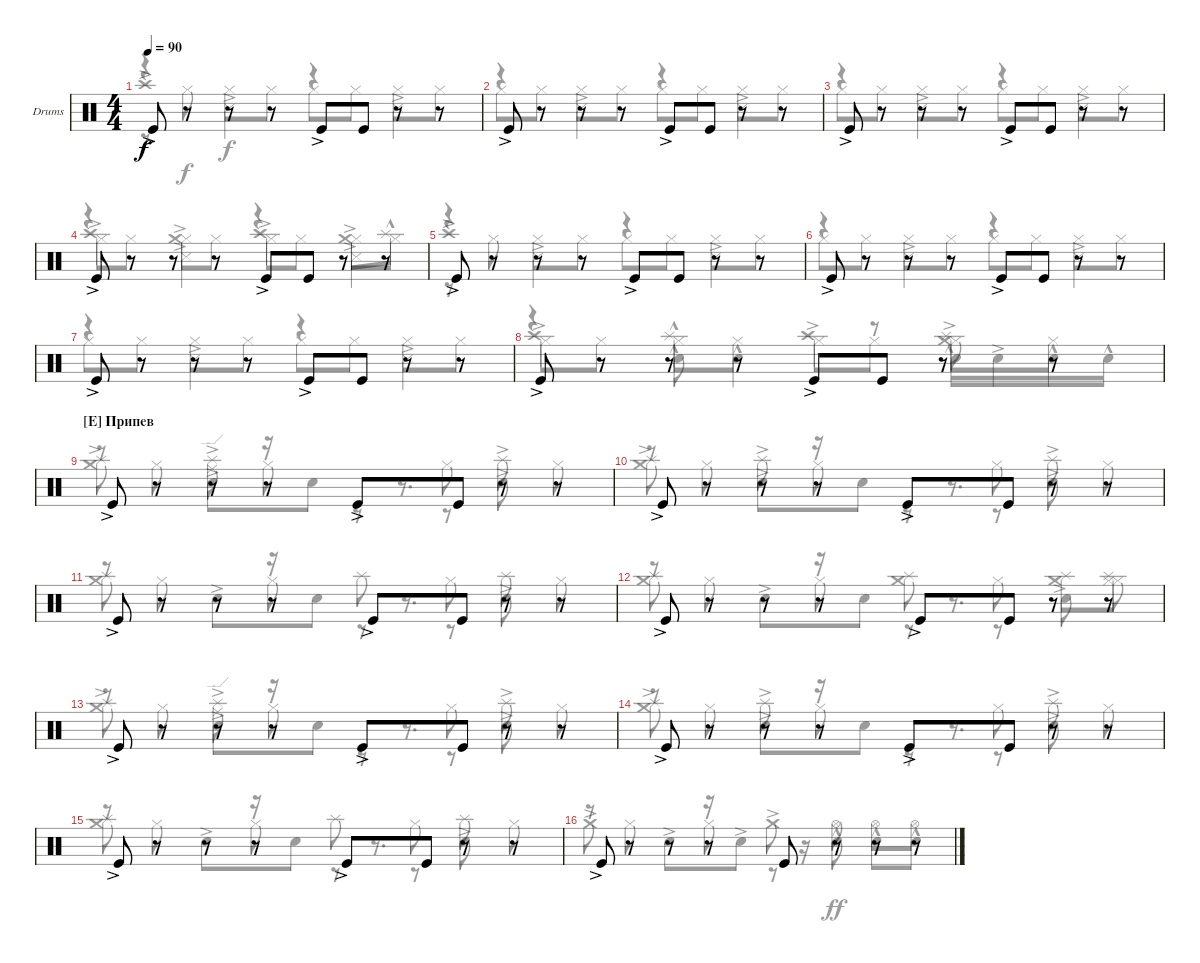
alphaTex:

\defaultSystemsLayout 4
\bracketExtendMode groupsimilarinstruments
\firstSystemTrackNameOrientation horizontal
\otherSystemsTrackNameOrientation horizontal
\track ("Drumkit" "Drums") {instrument percussion}
\staff {score}
\articulation defaults
\voice
\ts (4 4)
\tempo 90
\clef neutral
\scale
0.333333
\ks c "Kick (hit)"{ac}.8{dy f}
r.8 r.8 r.8 "Kick (hit)"{ac}.8 "Kick (hit)".8 r.8 r.8 |
\scale
0.333333 "Kick (hit)"{ac}.8 r.8 r.8 r.8 "Kick (hit)"{ac}.8 "Kick (hit)".8 r.8 r.8 |
\scale
0.333333 "Kick (hit)"{ac}.8 r.8 r.8 r.8 "Kick (hit)"{ac}.8 "Kick (hit)".8 r.8 r.8 |
\scale
0.333333 "Kick (hit)"{ac}.8 r.8 r.8 r.8 "Kick (hit)"{ac}.8 "Kick (hit)".8 r.8 r.8 |
\scale
0.333333 "Kick (hit)"{ac}.8 r.8 r.8 r.8 "Kick (hit)"{ac}.8 "Kick (hit)".8 r.8 r.8 |
\scale
0.333333 "Kick (hit)"{ac}.8 r.8 r.8 r.8 "Kick (hit)"{ac}.8 "Kick (hit)".8 r.8 r.8 |
\scale
0.333333 "Kick (hit)"{ac}.8 r.8 r.8 r.8 "Kick (hit)"{ac}.8 "Kick (hit)".8 r.8 r.8 |
\scale
0.333333 "Kick (hit)"{ac}.8 r.8 r.8 r.8 "Kick (hit)"{ac}.8 "Kick (hit)".8 r.8 r.8 |
\section ("E" "Припев")
\scale
0.333333 "Kick (hit)"{ac}.8 r.8 r.8 r.8 "Kick (hit)"{ac}.8 "Kick (hit)".8 r.8 r.8 |
\scale
0.333333 "Kick (hit)"{ac}.8 r.8 r.8 r.8 "Kick (hit)"{ac}.8 "Kick (hit)".8 r.8 r.8 |
\scale
0.333333 "Kick (hit)"{ac}.8 r.8 r.8 r.8 "Kick (hit)"{ac}.8 "Kick (hit)".8 r.8 r.8 |
\scale
0.333333 "Kick (hit)"{ac}.8 r.8 r.8 r.8 "Kick (hit)"{ac}.8 "Kick (hit)".8 r.8 r.8 |
\scale
0.333333 "Kick (hit)"{ac}.8 r.8 r.8 r.8 "Kick (hit)"{ac}.8 "Kick (hit)".8 r.8 r.8 |
\scale
0.333333 "Kick (hit)"{ac}.8 r.8 r.8 r.8 "Kick (hit)"{ac}.8 "Kick (hit)".8 r.8 r.8 |
\scale
0.333333 "Kick (hit)"{ac}.8 r.8 r.8 r.8 "Kick (hit)"{ac}.8 "Kick (hit)".8 r.8 r.8 |
\scale
0.333333 "Kick (hit)"{ac}.8 r.8 r.8 r.8 "Kick (hit)".8 r.8 r.8 r.8
\voice
\clef neutral
\ottava regular
\simile none
\scale
0.333333
\ks c
r.4{dy f} "Snare (side stick) 3"{ac}.4 r.4 "Snare (side stick) 3"{ac}.4 |
\scale
0.333333 r.4 "Snare (side stick) 3"{ac}.4 r.4 "Snare (side stick) 3"{ac}.4 |
\scale
0.333333 r.4 "Snare (side stick) 3"{ac}.4 r.4 "Snare (side stick) 3"{ac}.4 |
\scale
0.333333 r.4 "Snare (side stick) 3"{ac}.4 r.4 "Snare (side stick) 3"{ac}.4 |
\scale
0.333333 r.4 "Snare (side stick) 3"{ac}.4 r.4 "Snare (side stick) 3"{ac}.4 |
\scale
0.333333 r.4 "Snare (side stick) 3"{ac}.4 r.4 "Snare (side stick) 3"{ac}.4 |
\scale
0.333333 r.4 "Snare (side stick) 3"{ac}.4 r.4 "Snare (side stick) 3"{ac}.4 |
\scale
0.333333 r.4 "Snare (hit) 2"{hac}.8 "Snare (hit) 2"{hac}.4 r.8 "Snare (hit) 2"{hac}.16 "Snare (hit) 2"{ac}.16 "Snare (hit) 2"{hac}.16 "Snare (hit) 2"{hac}.16 |
\scale
0.333333 r.8 r.8 "Snare (hit) 2"{ac}.8 r.16 "Snare (hit) 2".8 r.8{d} "Snare (hit) 2"{ac}.8 r.8 |
\scale
0.333333 r.8 r.8 "Snare (hit) 2"{ac}.8 r.16 "Snare (hit) 2".8 r.8{d} "Snare (hit) 2"{ac}.8 r.8 |
\scale
0.333333 r.8 r.8 "Snare (hit) 2"{ac}.8 r.16 "Snare (hit) 2".8 r.8{d} "Snare (hit) 2"{ac}.8 r.8 |
\scale
0.333333 r.8 r.8 "Snare (hit) 2"{ac}.8 r.16 "Snare (hit) 2".8 r.8{d} "Snare (hit) 2"{ac}.8 r.8 |
\scale
0.333333 r.8 r.8 "Snare (hit) 2"{ac}.8 r.16 "Snare (hit) 2".8 r.8{d} "Snare (hit) 2"{ac}.8 r.8 |
\scale
0.333333 r.8 r.8 "Snare (hit) 2"{ac}.8 r.16 "Snare (hit) 2".8 r.8{d} "Snare (hit) 2"{ac}.8 r.8 |
\scale
0.333333 r.8 r.8 "Snare (hit) 2"{ac}.8 r.16 "Snare (hit) 2".8 r.8{d} "Snare (hit) 2"{ac}.8 r.8 |
\scale
0.333333 r.8 r.8 "Snare (hit) 2"{ac}.8 r.16 "Snare (hit) 2"{ac}.8 r.16 "Snare (hit) 2"{hac}.8{dy ff} "Snare (hit) 2"{hac}.8 "Snare (hit) 2"{hac}.8
\voice
\clef neutral
\ottava regular
\simile none
\scale
0.333333
\ks c
r.8{dy f} "Hi-Hat (closed)".8 "Hi-Hat (closed)".8 "Hi-Hat (closed)".8 "Hi-Hat (closed)".8 "Hi-Hat (closed)".8 "Hi-Hat (closed)".8 "Hi-Hat (closed)".8 |
\scale
0.333333 "Hi-Hat (closed)".8 "Hi-Hat (closed)".8 "Hi-Hat (closed)".8 "Hi-Hat (closed)".8 "Hi-Hat (closed)".8 "Hi-Hat (closed)".8 "Hi-Hat (closed)".8 "Hi-Hat (closed)".8 |
\scale
0.333333 "Hi-Hat (closed)".8 "Hi-Hat (closed)".8 "Hi-Hat (closed)".8 "Hi-Hat (closed)".8 "Hi-Hat (closed)".8 "Hi-Hat (closed)".8 "Hi-Hat (closed)".8 "Hi-Hat (closed)".8 |
\scale
0.333333 "Hi-Hat (closed)".8 "Hi-Hat (closed)".8 "Hi-Hat (closed)".8 "Hi-Hat (closed)".8 "Hi-Hat (closed)".8 "Hi-Hat (closed)".8 "Hi-Hat (closed)".8 "Hi-Hat (closed)".8 |
\scale
0.333333 r.8 "Hi-Hat (closed)".8 "Hi-Hat (closed)".8 "Hi-Hat (closed)".8 "Hi-Hat (closed)".8 "Hi-Hat (closed)".8 "Hi-Hat (closed)".8 "Hi-Hat (closed)".8 |
\scale
0.333333 "Hi-Hat (closed)".8 "Hi-Hat (closed)".8 "Hi-Hat (closed)".8 "Hi-Hat (closed)".8 "Hi-Hat (closed)".8 "Hi-Hat (closed)".8 "Hi-Hat (closed)".8 "Hi-Hat (closed)".8 |
\scale
0.333333 "Hi-Hat (closed)".8 "Hi-Hat (closed)".8 "Hi-Hat (closed)".8 "Hi-Hat (closed)".8 "Hi-Hat (closed)".8 "Hi-Hat (closed)".8 "Hi-Hat (closed)".8 "Hi-Hat (closed)".8 |
\scale
0.333333 "Hi-Hat (closed)".8 "Hi-Hat (closed)".8 "Hi-Hat (closed)".8 "Hi-Hat (closed)".8 "Hi-Hat (closed)".8 "Hi-Hat (closed)".8 "Hi-Hat (closed)".8 "Hi-Hat (closed)".8 |
\scale
0.333333 r.8 "Hi-Hat (closed)".8 r.8 "Hi-Hat (closed)".8 r.8 "Hi-Hat (closed)".8 r.8 "Hi-Hat (closed)".8 |
\scale
0.333333 r.8 "Hi-Hat (closed)".8 r.8 "Hi-Hat (closed)".8 r.8 "Hi-Hat (closed)".8 r.8 "Hi-Hat (closed)".8 |
\scale
0.333333 r.8 "Hi-Hat (closed)".8 r.8 "Hi-Hat (closed)".8 r.8 "Hi-Hat (closed)".8 r.8 "Hi-Hat (closed)".8 |
\scale
0.333333 r.8 "Hi-Hat (closed)".8 r.8 "Hi-Hat (closed)".8 r.8 "Hi-Hat (closed)".8 r.8 "Hi-Hat (closed)".8 |
\scale
0.333333 r.8 "Hi-Hat (closed)".8 r.8 "Hi-Hat (closed)".8 r.8 "Hi-Hat (closed)".8 r.8 "Hi-Hat (closed)".8 |
\scale
0.333333 r.8 "Hi-Hat (closed)".8 r.8 "Hi-Hat (closed)".8 r.8 "Hi-Hat (closed)".8 r.8 "Hi-Hat (closed)".8 |
\scale
0.333333 r.8 "Hi-Hat (closed)".8 r.8 "Hi-Hat (closed)".8 r.8 "Hi-Hat (closed)".8 r.8 "Hi-Hat (closed)".8 |
\scale
0.333333 r.8 "Hi-Hat (closed)".8 r.8 "Hi-Hat (closed)".8 r.8 "Hi-Hat (open)".8 "Hi-Hat (open)".8 "Hi-Hat (open)".8
\voice
\clef neutral
\ottava regular
\simile none
\scale
0.333333
\ks c "Crash high (hit)"{ac}.1{dy f}
|
\scale
0.333333 |
\scale
0.333333 |
\scale
0.333333 "Crash high (hit)"{ac}.4 "Crash medium (hit)"{ac}.4 "Crash high (hit)"{ac}.4 "Crash medium (hit)"{ac}.8 "Splash (hit)"{hac}.8 |
\scale
0.333333 "Crash high (hit)"{ac}.1 |
\scale
0.333333 |
\scale
0.333333 |
\scale
0.333333 "Crash high (hit)"{ac}.4 "Splash (hit)"{hac}.4 "Crash high (hit)"{ac}.4 ("Crash medium (hit)"{ac} "Splash (hit)").8 r.8 |
\scale
0.333333 ("Splash (hit)"{ac} "Crash medium (hit)"{ac}).8 r.8 ("Splash (hit)"{ac} "Ride (edge)"{ac}).8 r.8 r.8 r.8 "Splash (hit)"{ac}.8 r.8 |
\scale
0.333333 ("Splash (hit)"{ac} "Crash medium (hit)"{ac}).8 r.8 "Splash (hit)"{ac}.8 r.8 r.8 r.8 "Splash (hit)"{ac}.8 r.8 |
\scale
0.333333 ("Splash (hit)" "Crash medium (hit)").8 r.8 r.8 r.8 "Splash (hit)".8 r.8 "Splash (hit)".8 r.8 |
\scale
0.333333 ("Splash (hit)" "Crash medium (hit)").8 r.8 r.8 r.8 ("Splash (hit)" "Crash medium (hit)").8 r.8 ("Splash (hit)" "Crash medium (hit)").8 ("Hi-Hat (closed)" "Splash (hit)").8 |
\scale
0.333333 ("Splash (hit)"{ac} "Crash medium (hit)"{ac}).8 r.8 ("Splash (hit)"{ac} "Ride (edge)"{ac}).8 r.8 r.8 r.8 "Splash (hit)"{ac}.8 r.8 |
\scale
0.333333 ("Splash (hit)"{ac} "Crash medium (hit)"{ac}).8 r.8 "Splash (hit)"{ac}.8 r.8 r.8 r.8 "Splash (hit)"{ac}.8 r.8 |
\scale
0.333333 ("Splash (hit)" "Crash medium (hit)").8 r.8 r.8 r.8 "Splash (hit)".8 r.8 "Splash (hit)".8 r.8 |
\scale
0.333333 "Crash medium (hit)"{ac}.8 r.8 r.8 r.8 "Crash medium (hit)"{ac}.8 r.8 r.8 r.8
